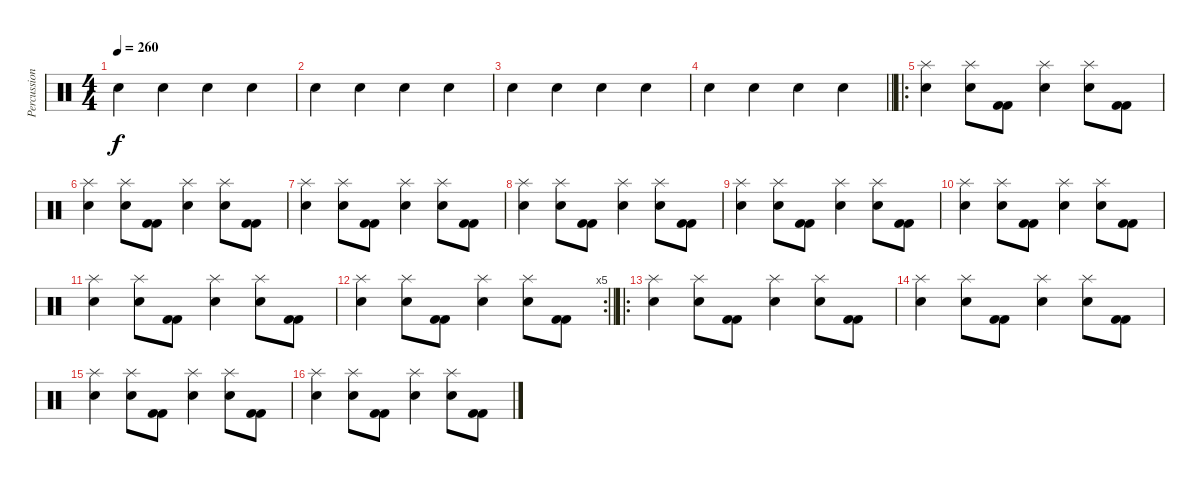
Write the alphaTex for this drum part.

\track ("Percussions" "Percussion") {instrument percussion}
\staff {score}
\articulation defaults
\ts (4 4)
\tempo 260
\clef neutral
\ks c "Electric Snare (hit)".4{dy f} "Electric Snare (hit)".4 "Electric Snare (hit)".4 "Electric Snare (hit)".4
|
"Electric Snare (hit)".4 "Electric Snare (hit)".4 "Electric Snare (hit)".4 "Electric Snare (hit)".4 |
"Electric Snare (hit)".4 "Electric Snare (hit)".4 "Electric Snare (hit)".4 "Electric Snare (hit)".4 |
\barLineRight lightlight "Electric Snare (hit)".4 "Electric Snare (hit)".4 "Electric Snare (hit)".4 "Electric Snare (hit)".4
|
\ro
\section ("" "")
("Electric Snare (hit)" "Splash (hit)").4 ("Electric Snare (hit)" "Splash (hit)").8 ("Kick (hit) 2" "Kick (hit) 2").8 ("Electric Snare (hit)" "Splash (hit)").4 ("Electric Snare (hit)" "Splash (hit)").8 ("Kick (hit) 2" "Kick (hit) 2").8 |
("Electric Snare (hit)" "Splash (hit)").4 ("Electric Snare (hit)" "Splash (hit)").8 ("Kick (hit) 2" "Kick (hit) 2").8 ("Electric Snare (hit)" "Splash (hit)").4 ("Electric Snare (hit)" "Splash (hit)").8 ("Kick (hit) 2" "Kick (hit) 2").8 |
("Electric Snare (hit)" "Splash (hit)").4 ("Electric Snare (hit)" "Splash (hit)").8 ("Kick (hit) 2" "Kick (hit) 2").8 ("Electric Snare (hit)" "Splash (hit)").4 ("Electric Snare (hit)" "Splash (hit)").8 ("Kick (hit) 2" "Kick (hit) 2").8 |
("Electric Snare (hit)" "Splash (hit)").4 ("Electric Snare (hit)" "Splash (hit)").8 ("Kick (hit) 2" "Kick (hit) 2").8 ("Electric Snare (hit)" "Splash (hit)").4 ("Electric Snare (hit)" "Splash (hit)").8 ("Kick (hit) 2" "Kick (hit) 2").8 |
("Electric Snare (hit)" "Splash (hit)").4 ("Electric Snare (hit)" "Splash (hit)").8 ("Kick (hit) 2" "Kick (hit) 2").8 ("Electric Snare (hit)" "Splash (hit)").4 ("Electric Snare (hit)" "Splash (hit)").8 ("Kick (hit) 2" "Kick (hit) 2").8 |
("Electric Snare (hit)" "Splash (hit)").4 ("Electric Snare (hit)" "Splash (hit)").8 ("Kick (hit) 2" "Kick (hit) 2").8 ("Electric Snare (hit)" "Splash (hit)").4 ("Electric Snare (hit)" "Splash (hit)").8 ("Kick (hit) 2" "Kick (hit) 2").8 |
("Electric Snare (hit)" "Splash (hit)").4 ("Electric Snare (hit)" "Splash (hit)").8 ("Kick (hit) 2" "Kick (hit) 2").8 ("Electric Snare (hit)" "Splash (hit)").4 ("Electric Snare (hit)" "Splash (hit)").8 ("Kick (hit) 2" "Kick (hit) 2").8 |
\rc 5
\barLineRight lightlight
("Electric Snare (hit)" "Splash (hit)").4 ("Electric Snare (hit)" "Splash (hit)").8 ("Kick (hit) 2" "Kick (hit) 2").8 ("Electric Snare (hit)" "Splash (hit)").4 ("Electric Snare (hit)" "Splash (hit)").8 ("Kick (hit) 2" "Kick (hit) 2").8 |
\ro
\section ("" "")
("Electric Snare (hit)" "Splash (hit)").4 ("Electric Snare (hit)" "Splash (hit)").8 ("Kick (hit) 2" "Kick (hit) 2").8 ("Electric Snare (hit)" "Splash (hit)").4 ("Electric Snare (hit)" "Splash (hit)").8 ("Kick (hit) 2" "Kick (hit) 2").8 |
("Electric Snare (hit)" "Splash (hit)").4 ("Electric Snare (hit)" "Splash (hit)").8 ("Kick (hit) 2" "Kick (hit) 2").8 ("Electric Snare (hit)" "Splash (hit)").4 ("Electric Snare (hit)" "Splash (hit)").8 ("Kick (hit) 2" "Kick (hit) 2").8 |
("Electric Snare (hit)" "Splash (hit)").4 ("Electric Snare (hit)" "Splash (hit)").8 ("Kick (hit) 2" "Kick (hit) 2").8 ("Electric Snare (hit)" "Splash (hit)").4 ("Electric Snare (hit)" "Splash (hit)").8 ("Kick (hit) 2" "Kick (hit) 2").8 |
("Electric Snare (hit)" "Splash (hit)").4 ("Electric Snare (hit)" "Splash (hit)").8 ("Kick (hit) 2" "Kick (hit) 2").8 ("Electric Snare (hit)" "Splash (hit)").4 ("Electric Snare (hit)" "Splash (hit)").8 ("Kick (hit) 2" "Kick (hit) 2").8
